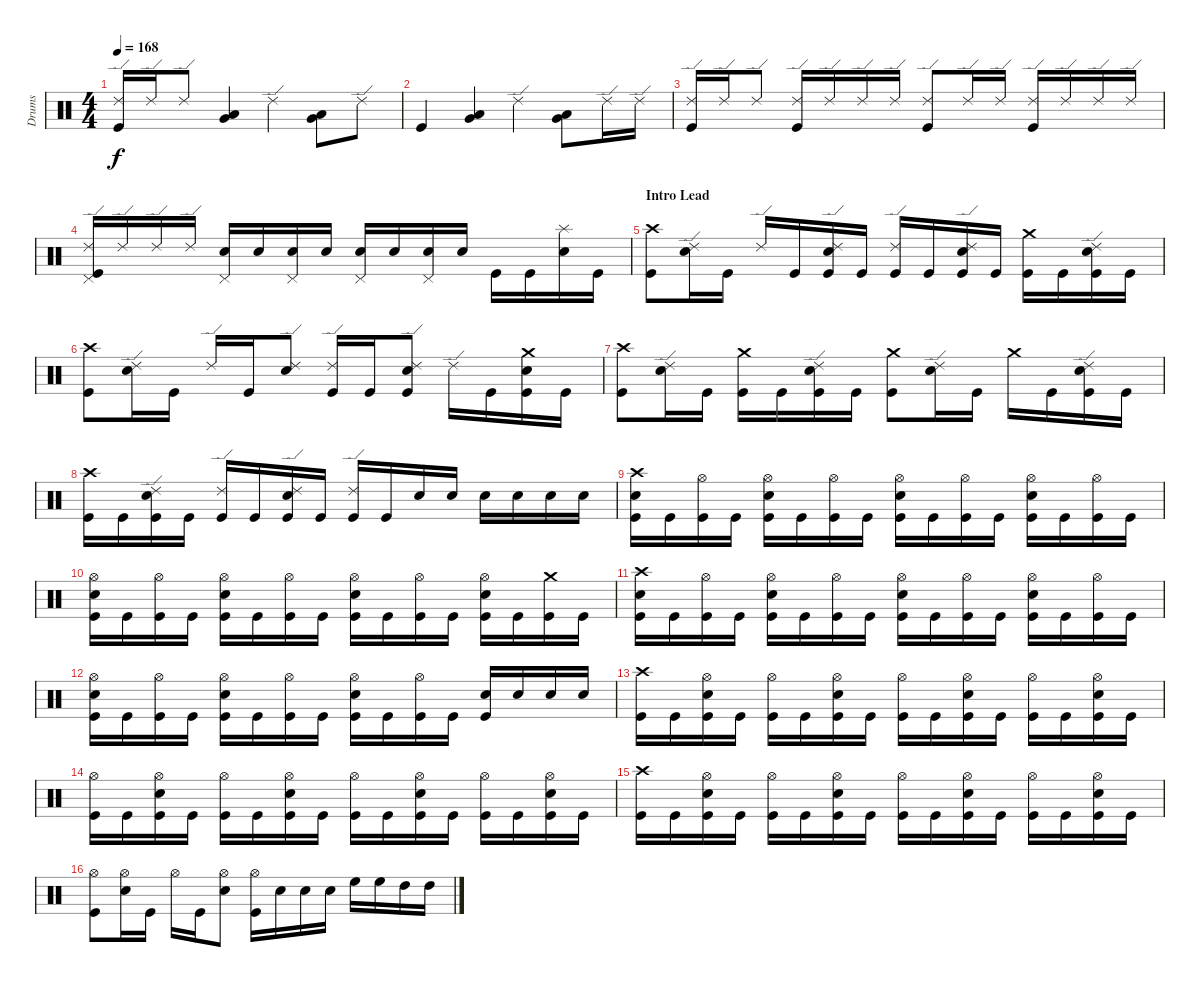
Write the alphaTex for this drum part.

\track ("Drums" "Drums") {instrument percussion}
\staff {score}
\articulation defaults
\ts (4 4)
\tempo 168
\clef neutral
\ks c
("Ride (edge) 2" "Kick (hit)").16{dy f} "Ride (edge) 2".16 "Ride (edge) 2".8 ("Low Tom (hit)" "Very Low Tom (hit)").4 "Ride (edge) 2".4 ("Low Tom (hit)" "Very Low Tom (hit)").8 "Ride (edge) 2".8 |
"Kick (hit)".4 ("Low Tom (hit)" "Very Low Tom (hit)").4 "Ride (edge) 2".4 ("Low Tom (hit)" "Very Low Tom (hit)").8 "Ride (edge) 2".16 "Ride (edge) 2".16 |
("Ride (edge) 2" "Kick (hit)").16 "Ride (edge) 2".16 "Ride (edge) 2".8 ("Ride (edge) 2" "Kick (hit)").16 "Ride (edge) 2".16 "Ride (edge) 2".16 "Ride (edge) 2".16 ("Ride (edge) 2" "Kick (hit)").8 "Ride (edge) 2".16 "Ride (edge) 2".16 ("Ride (edge) 2" "Kick (hit)").16 "Ride (edge) 2".16 "Ride (edge) 2".16 "Ride (edge) 2".16 |
("Ride (edge) 2" "Pedal Hi-Hat (hit)" "Kick (hit)").16 "Ride (edge) 2".16 "Ride (edge) 2".16 "Ride (edge) 2".16 ("Pedal Hi-Hat (hit)" "Electric Snare (hit)").16 "Electric Snare (hit)".16 ("Pedal Hi-Hat (hit)" "Electric Snare (hit)").16 "Electric Snare (hit)".16 ("Pedal Hi-Hat (hit)" "Electric Snare (hit)").16 "Electric Snare (hit)".16 ("Pedal Hi-Hat (hit)" "Electric Snare (hit)").16 "Electric Snare (hit)".16 "Kick (hit)".16 "Kick (hit)".16 ("Splash (hit)" "Electric Snare (hit)").16 "Kick (hit)".16 |
\section ("" "Intro Lead")
("Crash high (hit)" "Kick (hit)").8 ("Ride (edge) 2" "Electric Snare (hit)").16 "Kick (hit)".16 "Ride (edge) 2".16 "Kick (hit)".16 ("Ride (edge) 2" "Electric Snare (hit)" "Kick (hit)").16 "Kick (hit)".16 ("Ride (edge) 2" "Kick (hit)").16 "Kick (hit)".16 ("Ride (edge) 2" "Electric Snare (hit)" "Kick (hit)").16 "Kick (hit)".16 ("Crash medium (hit)" "Kick (hit)").16 "Kick (hit)".16 ("Ride (edge) 2" "Electric Snare (hit)" "Kick (hit)").16 "Kick (hit)".16 |
("Crash high (hit)" "Kick (hit)").8 ("Ride (edge) 2" "Electric Snare (hit)").16 "Kick (hit)".16 "Ride (edge) 2".16 "Kick (hit)".16 ("Ride (edge) 2" "Electric Snare (hit)").8 ("Ride (edge) 2" "Kick (hit)").16 "Kick (hit)".16 ("Ride (edge) 2" "Electric Snare (hit)" "Kick (hit)").8 "Ride (edge) 2".16 "Kick (hit)".16 ("Crash medium (hit)" "Electric Snare (hit)" "Kick (hit)").16 "Kick (hit)".16 |
("Crash high (hit)" "Kick (hit)").8 ("Ride (edge) 2" "Electric Snare (hit)").16 "Kick (hit)".16 ("Crash medium (hit)" "Kick (hit)").16 "Kick (hit)".16 ("Ride (edge) 2" "Electric Snare (hit)" "Kick (hit)").16 "Kick (hit)".16 ("Crash medium (hit)" "Kick (hit)").8 ("Ride (edge) 2" "Electric Snare (hit)").16 "Kick (hit)".16 "Crash medium (hit)".16 "Kick (hit)".16 ("Ride (edge) 2" "Electric Snare (hit)" "Kick (hit)").16 "Kick (hit)".16 |
("Crash high (hit)" "Kick (hit)").16 "Kick (hit)".16 ("Ride (edge) 2" "Electric Snare (hit)" "Kick (hit)").16 "Kick (hit)".16 ("Ride (edge) 2" "Kick (hit)").16 "Kick (hit)".16 ("Ride (edge) 2" "Electric Snare (hit)" "Kick (hit)").16 "Kick (hit)".16 ("Ride (edge) 2" "Kick (hit)").16 "Kick (hit)".16 "Electric Snare (hit)".16 "Electric Snare (hit)".16 "Electric Snare (hit)".16 "Electric Snare (hit)".16 "Electric Snare (hit)".16 "Electric Snare (hit)".16 |
("Crash high (hit)" "Electric Snare (hit)" "Kick (hit)").16 "Kick (hit)".16 ("Hi-Hat (open)" "Kick (hit)").16 "Kick (hit)".16 ("Hi-Hat (open)" "Electric Snare (hit)" "Kick (hit)").16 "Kick (hit)".16 ("Hi-Hat (open)" "Kick (hit)").16 "Kick (hit)".16 ("Hi-Hat (open)" "Electric Snare (hit)" "Kick (hit)").16 "Kick (hit)".16 ("Hi-Hat (open)" "Kick (hit)").16 "Kick (hit)".16 ("Hi-Hat (open)" "Electric Snare (hit)" "Kick (hit)").16 "Kick (hit)".16 ("Hi-Hat (open)" "Kick (hit)").16 "Kick (hit)".16 |
("Hi-Hat (open)" "Electric Snare (hit)" "Kick (hit)").16 "Kick (hit)".16 ("Hi-Hat (open)" "Kick (hit)").16 "Kick (hit)".16 ("Hi-Hat (open)" "Electric Snare (hit)" "Kick (hit)").16 "Kick (hit)".16 ("Hi-Hat (open)" "Kick (hit)").16 "Kick (hit)".16 ("Hi-Hat (open)" "Electric Snare (hit)" "Kick (hit)").16 "Kick (hit)".16 ("Hi-Hat (open)" "Kick (hit)").16 "Kick (hit)".16 ("Hi-Hat (open)" "Electric Snare (hit)" "Kick (hit)").16 "Kick (hit)".16 ("Crash medium (hit)" "Kick (hit)").16 "Kick (hit)".16 |
("Crash high (hit)" "Electric Snare (hit)" "Kick (hit)").16 "Kick (hit)".16 ("Hi-Hat (open)" "Kick (hit)").16 "Kick (hit)".16 ("Hi-Hat (open)" "Electric Snare (hit)" "Kick (hit)").16 "Kick (hit)".16 ("Hi-Hat (open)" "Kick (hit)").16 "Kick (hit)".16 ("Hi-Hat (open)" "Electric Snare (hit)" "Kick (hit)").16 "Kick (hit)".16 ("Hi-Hat (open)" "Kick (hit)").16 "Kick (hit)".16 ("Hi-Hat (open)" "Electric Snare (hit)" "Kick (hit)").16 "Kick (hit)".16 ("Hi-Hat (open)" "Kick (hit)").16 "Kick (hit)".16 |
("Hi-Hat (open)" "Electric Snare (hit)" "Kick (hit)").16 "Kick (hit)".16 ("Hi-Hat (open)" "Kick (hit)").16 "Kick (hit)".16 ("Hi-Hat (open)" "Electric Snare (hit)" "Kick (hit)").16 "Kick (hit)".16 ("Hi-Hat (open)" "Kick (hit)").16 "Kick (hit)".16 ("Hi-Hat (open)" "Electric Snare (hit)" "Kick (hit)").16 "Kick (hit)".16 ("Hi-Hat (open)" "Kick (hit)").16 "Kick (hit)".16 ("Electric Snare (hit)" "Kick (hit)").16 "Electric Snare (hit)".16 "Electric Snare (hit)".16 "Electric Snare (hit)".16 |
("Crash high (hit)" "Kick (hit)").16 "Kick (hit)".16 ("Hi-Hat (open)" "Electric Snare (hit)" "Kick (hit)").16 "Kick (hit)".16 ("Hi-Hat (open)" "Kick (hit)").16 "Kick (hit)".16 ("Hi-Hat (open)" "Electric Snare (hit)" "Kick (hit)").16 "Kick (hit)".16 ("Hi-Hat (open)" "Kick (hit)").16 "Kick (hit)".16 ("Hi-Hat (open)" "Electric Snare (hit)" "Kick (hit)").16 "Kick (hit)".16 ("Hi-Hat (open)" "Kick (hit)").16 "Kick (hit)".16 ("Hi-Hat (open)" "Electric Snare (hit)" "Kick (hit)").16 "Kick (hit)".16 |
("Hi-Hat (open)" "Kick (hit)").16 "Kick (hit)".16 ("Hi-Hat (open)" "Electric Snare (hit)" "Kick (hit)").16 "Kick (hit)".16 ("Hi-Hat (open)" "Kick (hit)").16 "Kick (hit)".16 ("Hi-Hat (open)" "Electric Snare (hit)" "Kick (hit)").16 "Kick (hit)".16 ("Hi-Hat (open)" "Kick (hit)").16 "Kick (hit)".16 ("Hi-Hat (open)" "Electric Snare (hit)" "Kick (hit)").16 "Kick (hit)".16 ("Hi-Hat (open)" "Kick (hit)").16 "Kick (hit)".16 ("Hi-Hat (open)" "Electric Snare (hit)" "Kick (hit)").16 "Kick (hit)".16 |
("Crash high (hit)" "Kick (hit)").16 "Kick (hit)".16 ("Hi-Hat (open)" "Electric Snare (hit)" "Kick (hit)").16 "Kick (hit)".16 ("Hi-Hat (open)" "Kick (hit)").16 "Kick (hit)".16 ("Hi-Hat (open)" "Electric Snare (hit)" "Kick (hit)").16 "Kick (hit)".16 ("Hi-Hat (open)" "Kick (hit)").16 "Kick (hit)".16 ("Hi-Hat (open)" "Electric Snare (hit)" "Kick (hit)").16 "Kick (hit)".16 ("Hi-Hat (open)" "Kick (hit)").16 "Kick (hit)".16 ("Hi-Hat (open)" "Electric Snare (hit)" "Kick (hit)").16 "Kick (hit)".16 |
("Hi-Hat (open)" "Kick (hit)").8 ("Hi-Hat (open)" "Electric Snare (hit)").16 "Kick (hit)".16 "Hi-Hat (open)".16 "Kick (hit)".16 ("Hi-Hat (open)" "Electric Snare (hit)").8 ("Hi-Hat (open)" "Kick (hit)").16 "Electric Snare (hit)".16 "Electric Snare (hit)".16 "Electric Snare (hit)".16 "High Floor Tom (hit)".16 "High Floor Tom (hit)".16 "High Tom (hit)".16 "High Tom (hit)".16
